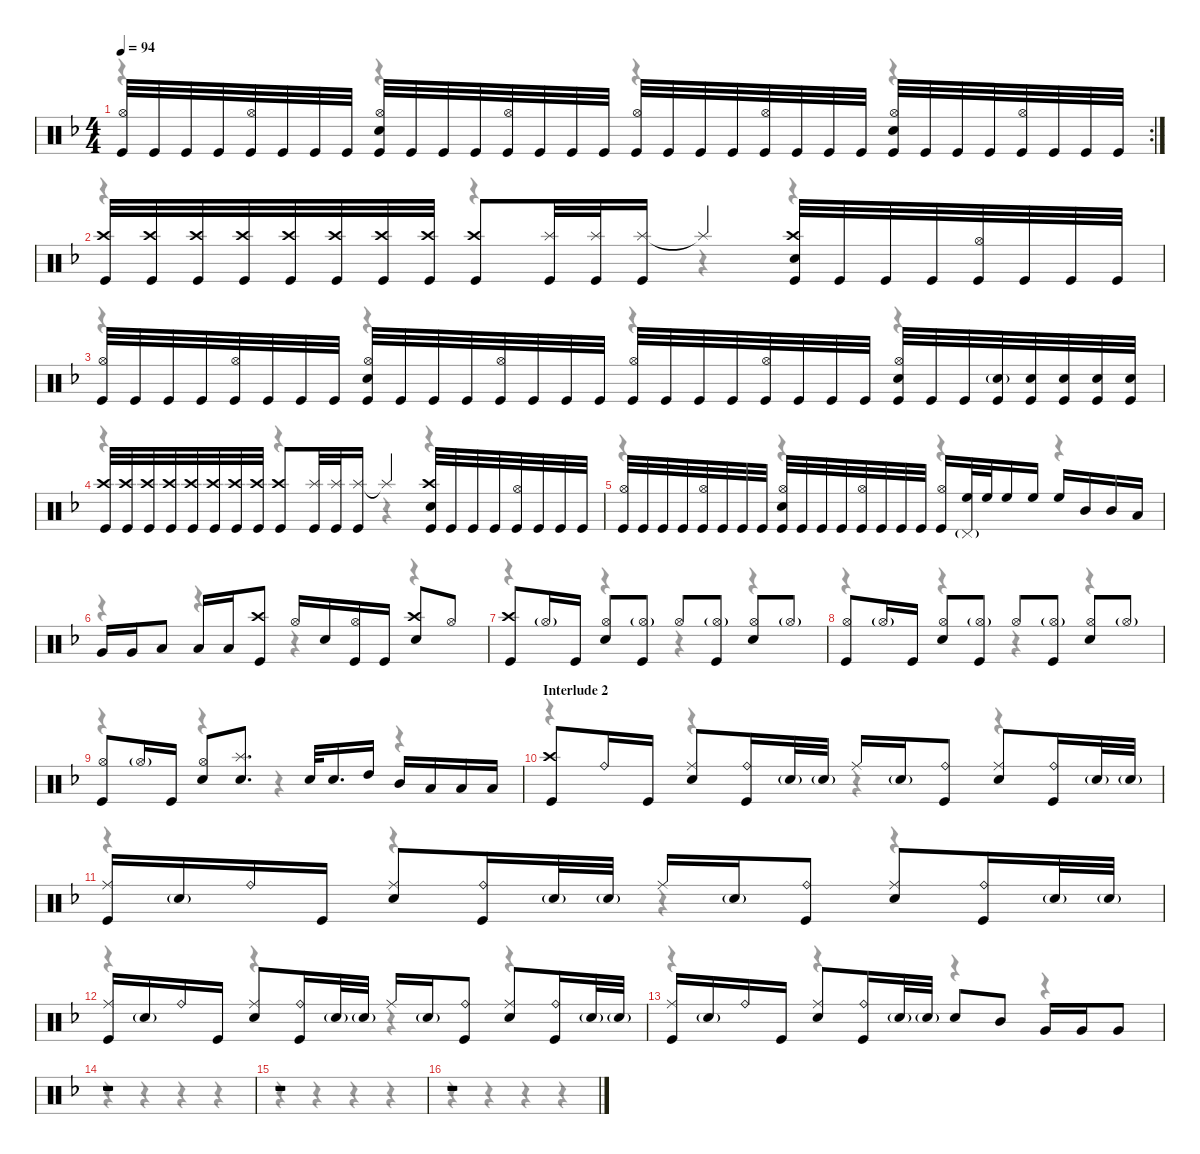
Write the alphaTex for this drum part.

\defaultSystemsLayout 4
\hideDynamics
\bracketExtendMode nobrackets
\singleTrackTrackNamePolicy hidden
\multiTrackTrackNamePolicy hidden
\otherSystemsTrackNameOrientation horizontal
\track ("M. Lopez" "drm.") {instrument percussion}
\staff {score}
\articulation defaults
\voice
\rc 2
\ts (4 4)
\tempo 94
\clef neutral
\ks dminor
("Hi-Hat (open)"{acc forcenatural} "Kick (hit)"{acc forcenatural}).32{dy f beam Up} "Kick (hit)"{acc forcenatural}.32{beam Up} "Kick (hit)"{acc forcenatural}.32{beam Up} "Kick (hit)"{acc forcenatural}.32{beam Up} ("Hi-Hat (open)"{acc forcenatural} "Kick (hit)"{acc forcenatural}).32{beam Up} "Kick (hit)"{acc forcenatural}.32{beam Up} "Kick (hit)"{acc forcenatural}.32{beam Up} "Kick (hit)"{acc forcenatural}.32{beam Up} ("Hi-Hat (open)"{acc forcenatural} "Snare (hit) 2"{acc forcenatural} "Kick (hit)"{acc forcenatural}).32{beam Up} "Kick (hit)"{acc forcenatural}.32{beam Up} "Kick (hit)"{acc forcenatural}.32{beam Up} "Kick (hit)"{acc forcenatural}.32{beam Up} ("Hi-Hat (open)"{acc forcenatural} "Kick (hit)"{acc forcenatural}).32{beam Up} "Kick (hit)"{acc forcenatural}.32{beam Up} "Kick (hit)"{acc forcenatural}.32{beam Up} "Kick (hit)"{acc forcenatural}.32{beam Up} ("Hi-Hat (open)"{acc forcenatural} "Kick (hit)"{acc forcenatural}).32{beam Up} "Kick (hit)"{acc forcenatural}.32{beam Up} "Kick (hit)"{acc forcenatural}.32{beam Up} "Kick (hit)"{acc forcenatural}.32{beam Up} ("Hi-Hat (open)"{acc forcenatural} "Kick (hit)"{acc forcenatural}).32{beam Up} "Kick (hit)"{acc forcenatural}.32{beam Up} "Kick (hit)"{acc forcenatural}.32{beam Up} "Kick (hit)"{acc forcenatural}.32{beam Up} ("Hi-Hat (open)"{acc forcenatural} "Snare (hit) 2"{acc forcenatural} "Kick (hit)"{acc forcenatural}).32{beam Up} "Kick (hit)"{acc forcenatural}.32{beam Up} "Kick (hit)"{acc forcenatural}.32{beam Up} "Kick (hit)"{acc forcenatural}.32{beam Up} ("Hi-Hat (open)"{acc forcenatural} "Kick (hit)"{acc forcenatural}).32{beam Up} "Kick (hit)"{acc forcenatural}.32{beam Up} "Kick (hit)"{acc forcenatural}.32{beam Up} "Kick (hit)"{acc forcenatural}.32{beam Up} |
("Crash high (hit)"{acc forcenatural} "Kick (hit)"{acc forcenatural}).32{dy mf beam Up} ("Crash high (hit)"{acc forcenatural} "Kick (hit)"{acc forcenatural}).32{beam Up} ("Crash high (hit)"{acc forcenatural} "Kick (hit)"{acc forcenatural}).32{beam Up} ("Crash high (hit)"{acc forcenatural} "Kick (hit)"{acc forcenatural}).32{beam Up} ("Crash high (hit)"{acc forcenatural} "Kick (hit)"{acc forcenatural}).32{beam Up} ("Crash high (hit)"{acc forcenatural} "Kick (hit)"{acc forcenatural}).32{beam Up} ("Crash high (hit)"{acc forcenatural} "Kick (hit)"{acc forcenatural}).32{beam Up} ("Crash high (hit)"{acc forcenatural} "Kick (hit)"{acc forcenatural}).32{beam Up} ("Crash high (hit)"{acc forcenatural} "Kick (hit)"{acc forcenatural}).8{beam Up} ("Splash (hit)"{acc forcenatural} "Kick (hit)"{acc forcenatural}).32{dy f beam Up} ("Splash (hit)"{acc forcenatural} "Kick (hit)"{acc forcenatural}).32{beam Up} ("Splash (hit)"{acc forcenatural} "Kick (hit)"{acc forcenatural}).16{beam Up} "Splash (hit)"{t acc forcenatural}.4{beam Up} ("Crash high (hit)"{acc forcenatural} "Snare (hit) 2"{acc forcenatural} "Kick (hit)"{acc forcenatural}).32{beam Up} "Kick (hit)"{acc forcenatural}.32{beam Up} "Kick (hit)"{acc forcenatural}.32{beam Up} "Kick (hit)"{acc forcenatural}.32{beam Up} ("Hi-Hat (open)"{acc forcenatural} "Kick (hit)"{acc forcenatural}).32{beam Up} "Kick (hit)"{acc forcenatural}.32{beam Up} "Kick (hit)"{acc forcenatural}.32{beam Up} "Kick (hit)"{acc forcenatural}.32{beam Up} |
("Hi-Hat (open)"{acc forcenatural} "Kick (hit)"{acc forcenatural}).32{beam Up} "Kick (hit)"{acc forcenatural}.32{beam Up} "Kick (hit)"{acc forcenatural}.32{beam Up} "Kick (hit)"{acc forcenatural}.32{beam Up} ("Hi-Hat (open)"{acc forcenatural} "Kick (hit)"{acc forcenatural}).32{beam Up} "Kick (hit)"{acc forcenatural}.32{beam Up} "Kick (hit)"{acc forcenatural}.32{beam Up} "Kick (hit)"{acc forcenatural}.32{beam Up} ("Hi-Hat (open)"{acc forcenatural} "Snare (hit) 2"{acc forcenatural} "Kick (hit)"{acc forcenatural}).32{beam Up} "Kick (hit)"{acc forcenatural}.32{beam Up} "Kick (hit)"{acc forcenatural}.32{beam Up} "Kick (hit)"{acc forcenatural}.32{beam Up} ("Hi-Hat (open)"{acc forcenatural} "Kick (hit)"{acc forcenatural}).32{beam Up} "Kick (hit)"{acc forcenatural}.32{beam Up} "Kick (hit)"{acc forcenatural}.32{beam Up} "Kick (hit)"{acc forcenatural}.32{beam Up} ("Hi-Hat (open)"{acc forcenatural} "Kick (hit)"{acc forcenatural}).32{beam Up} "Kick (hit)"{acc forcenatural}.32{beam Up} "Kick (hit)"{acc forcenatural}.32{beam Up} "Kick (hit)"{acc forcenatural}.32{beam Up} ("Hi-Hat (open)"{acc forcenatural} "Kick (hit)"{acc forcenatural}).32{beam Up} "Kick (hit)"{acc forcenatural}.32{beam Up} "Kick (hit)"{acc forcenatural}.32{beam Up} "Kick (hit)"{acc forcenatural}.32{beam Up} ("Hi-Hat (open)"{acc forcenatural} "Snare (hit) 2"{acc forcenatural} "Kick (hit)"{acc forcenatural}).32{beam Up} "Kick (hit)"{acc forcenatural}.32{beam Up} "Kick (hit)"{acc forcenatural}.32{beam Up} ("Snare (hit) 2"{g acc forcenatural} "Kick (hit)"{acc forcenatural}).32{beam Up} ("Snare (hit) 2"{acc forcenatural} "Kick (hit)"{acc forcenatural}).32{dy mf beam Up} ("Snare (hit) 2"{acc forcenatural} "Kick (hit)"{acc forcenatural}).32{dy f beam Up} ("Snare (hit) 2"{acc forcenatural} "Kick (hit)"{acc forcenatural}).32{beam Up} ("Snare (hit) 2"{acc forcenatural} "Kick (hit)"{acc forcenatural}).32{beam Up} |
("Crash high (hit)"{acc forcenatural} "Kick (hit)"{acc forcenatural}).32{dy mf beam Up} ("Crash high (hit)"{acc forcenatural} "Kick (hit)"{acc forcenatural}).32{beam Up} ("Crash high (hit)"{acc forcenatural} "Kick (hit)"{acc forcenatural}).32{beam Up} ("Crash high (hit)"{acc forcenatural} "Kick (hit)"{acc forcenatural}).32{beam Up} ("Crash high (hit)"{acc forcenatural} "Kick (hit)"{acc forcenatural}).32{beam Up} ("Crash high (hit)"{acc forcenatural} "Kick (hit)"{acc forcenatural}).32{beam Up} ("Crash high (hit)"{acc forcenatural} "Kick (hit)"{acc forcenatural}).32{beam Up} ("Crash high (hit)"{acc forcenatural} "Kick (hit)"{acc forcenatural}).32{beam Up} ("Crash high (hit)"{acc forcenatural} "Kick (hit)"{acc forcenatural}).8{beam Up} ("Splash (hit)"{acc forcenatural} "Kick (hit)"{acc forcenatural}).32{dy f beam Up} ("Splash (hit)"{acc forcenatural} "Kick (hit)"{acc forcenatural}).32{beam Up} ("Splash (hit)"{acc forcenatural} "Kick (hit)"{acc forcenatural}).16{beam Up} "Splash (hit)"{t acc forcenatural}.4{beam Up} ("Crash high (hit)"{acc forcenatural} "Snare (hit) 2"{acc forcenatural} "Kick (hit)"{acc forcenatural}).32{beam Up} "Kick (hit)"{acc forcenatural}.32{beam Up} "Kick (hit)"{acc forcenatural}.32{beam Up} "Kick (hit)"{acc forcenatural}.32{beam Up} ("Hi-Hat (open)"{acc forcenatural} "Kick (hit)"{acc forcenatural}).32{beam Up} "Kick (hit)"{acc forcenatural}.32{beam Up} "Kick (hit)"{acc forcenatural}.32{beam Up} "Kick (hit)"{acc forcenatural}.32{beam Up} |
("Hi-Hat (open)"{acc forcenatural} "Kick (hit)"{acc forcenatural}).32{beam Up} "Kick (hit)"{acc forcenatural}.32{beam Up} "Kick (hit)"{acc forcenatural}.32{beam Up} "Kick (hit)"{acc forcenatural}.32{beam Up} ("Hi-Hat (open)"{acc forcenatural} "Kick (hit)"{acc forcenatural}).32{beam Up} "Kick (hit)"{acc forcenatural}.32{beam Up} "Kick (hit)"{acc forcenatural}.32{beam Up} "Kick (hit)"{acc forcenatural}.32{beam Up} ("Hi-Hat (open)"{acc forcenatural} "Snare (hit) 2"{acc forcenatural} "Kick (hit)"{acc forcenatural}).32{beam Up} "Kick (hit)"{acc forcenatural}.32{beam Up} "Kick (hit)"{acc forcenatural}.32{beam Up} "Kick (hit)"{acc forcenatural}.32{beam Up} ("Hi-Hat (open)"{acc forcenatural} "Kick (hit)"{acc forcenatural}).32{beam Up} "Kick (hit)"{acc forcenatural}.32{beam Up} "Kick (hit)"{acc forcenatural}.32{beam Up} "Kick (hit)"{acc forcenatural}.32{beam Up} ("Hi-Hat (open)"{acc forcenatural} "Kick (hit)"{acc forcenatural}).16{beam Up} ("Pedal Hi-Hat (hit)"{g acc forcenatural} "High Floor Tom (hit)"{acc forcenatural}).32{dy mf beam Up} "High Floor Tom (hit)"{acc forcenatural}.32{beam Up} "High Floor Tom (hit)"{acc forcenatural}.16{dy f beam Up} "High Floor Tom (hit)"{acc forcenatural}.16{beam Up} "High Floor Tom (hit)"{acc forcenatural}.16{beam Up} "Mid Tom (hit)"{acc forcenatural}.16{beam Up} "Mid Tom (hit)"{acc forcenatural}.16{beam Up} "Low Tom (hit)"{acc forcenatural}.16{beam Up} |
"Very Low Tom (hit)"{acc forcenatural}.16{beam Up} "Very Low Tom (hit)"{acc forcenatural}.16{beam Up} "Low Floor Tom (hit)"{acc forcenatural}.8{beam Up} "Low Floor Tom (hit)"{acc forcenatural}.16{beam Up} "Low Floor Tom (hit)"{acc forcenatural}.16{beam Up} ("Crash high (hit)"{acc forcenatural} "Kick (hit)"{acc forcenatural}).8{beam Up} "Hi-Hat (open)"{acc forcenatural}.16{beam Up} "Snare (hit) 2"{acc forcenatural}.16{beam Up} ("Hi-Hat (open)"{acc forcenatural} "Kick (hit)"{acc forcenatural}).16{beam Up} "Kick (hit)"{acc forcenatural}.16{beam Up} ("Crash high (hit)"{acc forcenatural} "Snare (hit) 2"{acc forcenatural}).8{beam Up} "Hi-Hat (open)"{acc forcenatural}.8{beam Up} |
("Crash high (hit)"{acc forcenatural} "Kick (hit)"{acc forcenatural}).8{beam Up} "Hi-Hat (open)"{g acc forcenatural}.16{dy ff beam Up} "Kick (hit)"{acc forcenatural}.16{dy f beam Up} ("Hi-Hat (open)"{acc forcenatural} "Snare (hit) 2"{acc forcenatural}).8{beam Up} ("Hi-Hat (open)"{g acc forcenatural} "Kick (hit)"{acc forcenatural}).8{beam Up} "Hi-Hat (open)"{acc forcenatural}.8{beam Up} ("Hi-Hat (open)"{g acc forcenatural} "Kick (hit)"{acc forcenatural}).8{beam Up} ("Hi-Hat (open)"{acc forcenatural} "Snare (hit) 2"{acc forcenatural}).8{beam Up} "Hi-Hat (open)"{g acc forcenatural}.8{dy ff beam Up} |
("Hi-Hat (open)"{acc forcenatural} "Kick (hit)"{acc forcenatural}).8{dy f beam Up} "Hi-Hat (open)"{g acc forcenatural}.16{dy ff beam Up} "Kick (hit)"{acc forcenatural}.16{dy f beam Up} ("Hi-Hat (open)"{acc forcenatural} "Snare (hit) 2"{acc forcenatural}).8{beam Up} ("Hi-Hat (open)"{g acc forcenatural} "Kick (hit)"{acc forcenatural}).8{beam Up} "Hi-Hat (open)"{acc forcenatural}.8{beam Up} ("Hi-Hat (open)"{g acc forcenatural} "Kick (hit)"{acc forcenatural}).8{beam Up} ("Hi-Hat (open)"{acc forcenatural} "Snare (hit) 2"{acc forcenatural}).8{beam Up} "Hi-Hat (open)"{g acc forcenatural}.8{dy ff beam Up} |
("Hi-Hat (open)"{acc forcenatural} "Kick (hit)"{acc forcenatural}).8{dy f beam Up} "Hi-Hat (open)"{g acc forcenatural}.16{dy ff beam Up} "Kick (hit)"{acc forcenatural}.16{dy f beam Up} ("Hi-Hat (open)"{acc forcenatural} "Snare (hit) 2"{acc forcenatural}).8{beam Up} ("Splash (hit)"{acc forcenatural} "Snare (hit) 2"{acc forcenatural}).8{d beam Up} "Snare (hit) 2"{acc forcenatural}.32{beam Up} "Snare (hit) 2"{acc forcenatural}.16{d beam Up} "High Tom (hit)"{acc forcenatural}.16{beam Up} "Mid Tom (hit)"{acc forcenatural}.16{beam Up} "Low Tom (hit)"{acc forcenatural}.16{beam Up} "Low Tom (hit)"{acc forcenatural}.16{beam Up} "Low Tom (hit)"{acc forcenatural}.16{beam Up} |
\section ("" "Interlude 2")
("Crash high (hit)"{acc forcenatural} "Kick (hit)"{acc forcenatural}).8{beam Up} "Ride (bell)"{acc forcenatural}.16{beam Up} "Kick (hit)"{acc forcenatural}.16{beam Up} ("Ride (middle)"{acc forcenatural} "Snare (hit) 2"{acc forcenatural}).8{beam Up} ("Ride (bell)"{acc forcenatural} "Kick (hit)"{acc forcenatural}).16{beam Up} "Snare (hit) 2"{g acc forcenatural}.32{dy mf beam Up} "Snare (hit) 2"{g acc forcenatural}.32{beam Up} "Ride (middle)"{acc forcenatural}.16{dy f beam Up} "Snare (hit) 2"{g acc forcenatural}.16{dy ff beam Up} ("Ride (bell)"{acc forcenatural} "Kick (hit)"{acc forcenatural}).8{dy f beam Up} ("Ride (middle)"{acc forcenatural} "Snare (hit) 2"{acc forcenatural}).8{beam Up} ("Ride (bell)"{acc forcenatural} "Kick (hit)"{acc forcenatural}).16{beam Up} "Snare (hit) 2"{g acc forcenatural}.32{dy mf beam Up} "Snare (hit) 2"{g acc forcenatural}.32{beam Up} |
("Ride (middle)"{acc forcenatural} "Kick (hit)"{acc forcenatural}).16{dy f beam Up} "Snare (hit) 2"{g acc forcenatural}.16{dy ff beam Up} "Ride (bell)"{acc forcenatural}.16{dy f beam Up} "Kick (hit)"{acc forcenatural}.16{beam Up} ("Ride (middle)"{acc forcenatural} "Snare (hit) 2"{acc forcenatural}).8{beam Up} ("Ride (bell)"{acc forcenatural} "Kick (hit)"{acc forcenatural}).16{beam Up} "Snare (hit) 2"{g acc forcenatural}.32{dy mf beam Up} "Snare (hit) 2"{g acc forcenatural}.32{beam Up} "Ride (middle)"{acc forcenatural}.16{dy f beam Up} "Snare (hit) 2"{g acc forcenatural}.16{dy ff beam Up} ("Ride (bell)"{acc forcenatural} "Kick (hit)"{acc forcenatural}).8{dy f beam Up} ("Ride (middle)"{acc forcenatural} "Snare (hit) 2"{acc forcenatural}).8{beam Up} ("Ride (bell)"{acc forcenatural} "Kick (hit)"{acc forcenatural}).16{beam Up} "Snare (hit) 2"{g acc forcenatural}.32{dy mf beam Up} "Snare (hit) 2"{g acc forcenatural}.32{beam Up} |
("Ride (middle)"{acc forcenatural} "Kick (hit)"{acc forcenatural}).16{dy f beam Up} "Snare (hit) 2"{g acc forcenatural}.16{dy ff beam Up} "Ride (bell)"{acc forcenatural}.16{dy f beam Up} "Kick (hit)"{acc forcenatural}.16{beam Up} ("Ride (middle)"{acc forcenatural} "Snare (hit) 2"{acc forcenatural}).8{beam Up} ("Ride (bell)"{acc forcenatural} "Kick (hit)"{acc forcenatural}).16{beam Up} "Snare (hit) 2"{g acc forcenatural}.32{dy mf beam Up} "Snare (hit) 2"{g acc forcenatural}.32{beam Up} "Ride (middle)"{acc forcenatural}.16{dy f beam Up} "Snare (hit) 2"{g acc forcenatural}.16{dy ff beam Up} ("Ride (bell)"{acc forcenatural} "Kick (hit)"{acc forcenatural}).8{dy f beam Up} ("Ride (middle)"{acc forcenatural} "Snare (hit) 2"{acc forcenatural}).8{beam Up} ("Ride (bell)"{acc forcenatural} "Kick (hit)"{acc forcenatural}).16{beam Up} "Snare (hit) 2"{g acc forcenatural}.32{dy mf beam Up} "Snare (hit) 2"{g acc forcenatural}.32{beam Up} |
("Ride (middle)"{acc forcenatural} "Kick (hit)"{acc forcenatural}).16{dy f beam Up} "Snare (hit) 2"{g acc forcenatural}.16{dy ff beam Up} "Ride (bell)"{acc forcenatural}.16{dy f beam Up} "Kick (hit)"{acc forcenatural}.16{beam Up} ("Ride (middle)"{acc forcenatural} "Snare (hit) 2"{acc forcenatural}).8{beam Up} ("Ride (bell)"{acc forcenatural} "Kick (hit)"{acc forcenatural}).16{beam Up} "Snare (hit) 2"{g acc forcenatural}.32{dy mf beam Up} "Snare (hit) 2"{g acc forcenatural}.32{beam Up} "Snare (hit) 2"{acc forcenatural}.8{dy f beam Up} "Mid Tom (hit)"{acc forcenatural}.8{beam Up} "Very Low Tom (hit)"{acc forcenatural}.16{beam Up} "Very Low Tom (hit)"{acc forcenatural}.16{beam Up} "Very Low Tom (hit)"{acc forcenatural}.8{beam Up} |
r.1{beam Up} |
r.1{beam Up} |
r.1{beam Up}
\voice
\clef neutral
\ottava regular
\simile none
\ks dminor
r.4{dy mf beam Down} r.4{beam Down} r.4{beam Down} r.4{beam Down} |
r.4{beam Down} r.4{beam Down} r.4{beam Down} r.4{beam Down} |
r.4{beam Down} r.4{beam Down} r.4{beam Down} r.4{beam Down} |
r.4{beam Down} r.4{beam Down} r.4{beam Down} r.4{beam Down} |
r.4{beam Down} r.4{beam Down} r.4{beam Down} r.4{beam Down} |
r.4{beam Down} r.4{beam Down} r.4{beam Down} r.4{beam Down} |
r.4{beam Down} r.4{beam Down} r.4{beam Down} r.4{beam Down} |
r.4{beam Down} r.4{beam Down} r.4{beam Down} r.4{beam Down} |
r.4{beam Down} r.4{beam Down} r.4{beam Down} r.4{beam Down} |
r.4{beam Down} r.4{beam Down} r.4{beam Down} r.4{beam Down} |
r.4{beam Down} r.4{beam Down} r.4{beam Down} r.4{beam Down} |
r.4{beam Down} r.4{beam Down} r.4{beam Down} r.4{beam Down} |
r.4{beam Down} r.4{beam Down} r.4{beam Down} r.4{beam Down} |
r.4{beam Down} r.4{beam Down} r.4{beam Down} r.4{beam Down} |
r.4{beam Down} r.4{beam Down} r.4{beam Down} r.4{beam Down} |
r.4{beam Down} r.4{beam Down} r.4{beam Down} r.4{beam Down}
